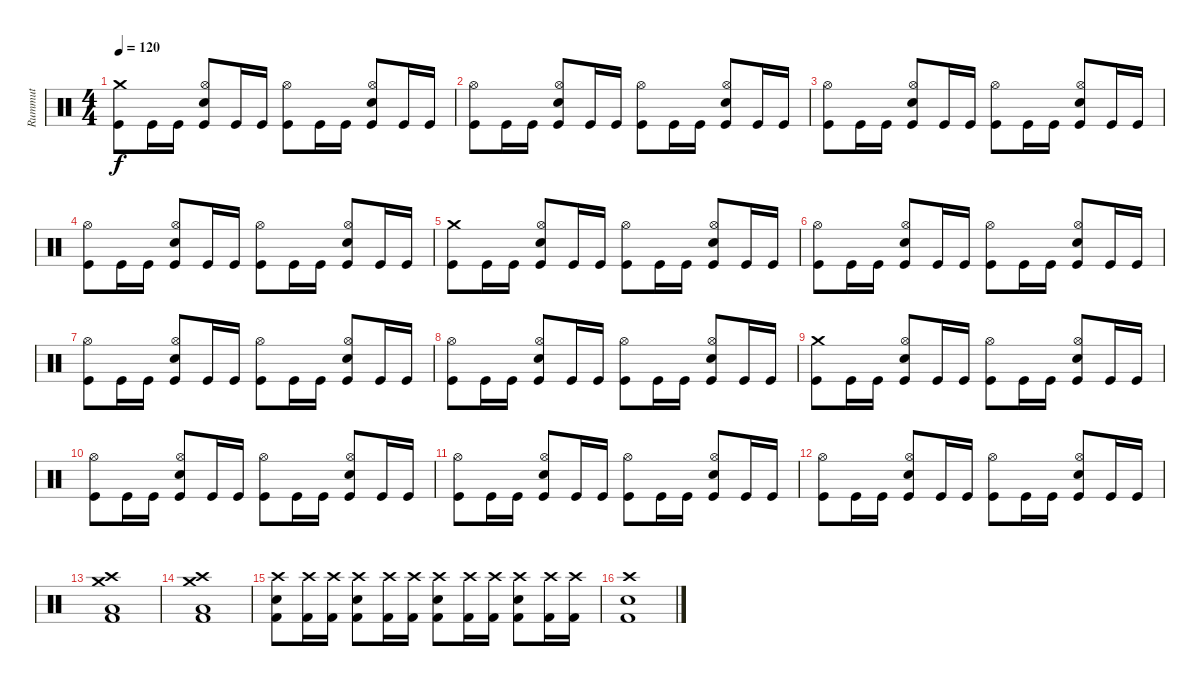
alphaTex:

\track ("Rummut" "Rummut") {instrument percussion}
\staff {score}
\articulation defaults
\ts (4 4)
\tempo 120
\clef neutral
\ks c
("Crash medium (hit)" "Kick (hit)").8{dy f} "Kick (hit)".16 "Kick (hit)".16 ("Hi-Hat (open)" "Snare (hit) 2" "Kick (hit)").8 "Kick (hit)".16 "Kick (hit)".16 ("Hi-Hat (open)" "Kick (hit)").8 "Kick (hit)".16 "Kick (hit)".16 ("Hi-Hat (open)" "Snare (hit) 2" "Kick (hit)").8 "Kick (hit)".16 "Kick (hit)".16 |
("Hi-Hat (open)" "Kick (hit)").8 "Kick (hit)".16 "Kick (hit)".16 ("Hi-Hat (open)" "Snare (hit) 2" "Kick (hit)").8 "Kick (hit)".16 "Kick (hit)".16 ("Hi-Hat (open)" "Kick (hit)").8 "Kick (hit)".16 "Kick (hit)".16 ("Hi-Hat (open)" "Snare (hit) 2" "Kick (hit)").8 "Kick (hit)".16 "Kick (hit)".16 |
("Hi-Hat (open)" "Kick (hit)").8 "Kick (hit)".16 "Kick (hit)".16 ("Hi-Hat (open)" "Snare (hit) 2" "Kick (hit)").8 "Kick (hit)".16 "Kick (hit)".16 ("Hi-Hat (open)" "Kick (hit)").8 "Kick (hit)".16 "Kick (hit)".16 ("Hi-Hat (open)" "Snare (hit) 2" "Kick (hit)").8 "Kick (hit)".16 "Kick (hit)".16 |
("Hi-Hat (open)" "Kick (hit)").8 "Kick (hit)".16 "Kick (hit)".16 ("Hi-Hat (open)" "Snare (hit) 2" "Kick (hit)").8 "Kick (hit)".16 "Kick (hit)".16 ("Hi-Hat (open)" "Kick (hit)").8 "Kick (hit)".16 "Kick (hit)".16 ("Hi-Hat (open)" "Snare (hit) 2" "Kick (hit)").8 "Kick (hit)".16 "Kick (hit)".16 |
("Crash medium (hit)" "Kick (hit)").8 "Kick (hit)".16 "Kick (hit)".16 ("Hi-Hat (open)" "Snare (hit) 2" "Kick (hit)").8 "Kick (hit)".16 "Kick (hit)".16 ("Hi-Hat (open)" "Kick (hit)").8 "Kick (hit)".16 "Kick (hit)".16 ("Hi-Hat (open)" "Snare (hit) 2" "Kick (hit)").8 "Kick (hit)".16 "Kick (hit)".16 |
("Hi-Hat (open)" "Kick (hit)").8 "Kick (hit)".16 "Kick (hit)".16 ("Hi-Hat (open)" "Snare (hit) 2" "Kick (hit)").8 "Kick (hit)".16 "Kick (hit)".16 ("Hi-Hat (open)" "Kick (hit)").8 "Kick (hit)".16 "Kick (hit)".16 ("Hi-Hat (open)" "Snare (hit) 2" "Kick (hit)").8 "Kick (hit)".16 "Kick (hit)".16 |
("Hi-Hat (open)" "Kick (hit)").8 "Kick (hit)".16 "Kick (hit)".16 ("Hi-Hat (open)" "Snare (hit) 2" "Kick (hit)").8 "Kick (hit)".16 "Kick (hit)".16 ("Hi-Hat (open)" "Kick (hit)").8 "Kick (hit)".16 "Kick (hit)".16 ("Hi-Hat (open)" "Snare (hit) 2" "Kick (hit)").8 "Kick (hit)".16 "Kick (hit)".16 |
("Hi-Hat (open)" "Kick (hit)").8 "Kick (hit)".16 "Kick (hit)".16 ("Hi-Hat (open)" "Snare (hit) 2" "Kick (hit)").8 "Kick (hit)".16 "Kick (hit)".16 ("Hi-Hat (open)" "Kick (hit)").8 "Kick (hit)".16 "Kick (hit)".16 ("Hi-Hat (open)" "Snare (hit) 2" "Kick (hit)").8 "Kick (hit)".16 "Kick (hit)".16 |
("Crash medium (hit)" "Kick (hit)").8 "Kick (hit)".16 "Kick (hit)".16 ("Hi-Hat (open)" "Snare (hit) 2" "Kick (hit)").8 "Kick (hit)".16 "Kick (hit)".16 ("Hi-Hat (open)" "Kick (hit)").8 "Kick (hit)".16 "Kick (hit)".16 ("Hi-Hat (open)" "Snare (hit) 2" "Kick (hit)").8 "Kick (hit)".16 "Kick (hit)".16 |
("Hi-Hat (open)" "Kick (hit)").8 "Kick (hit)".16 "Kick (hit)".16 ("Hi-Hat (open)" "Snare (hit) 2" "Kick (hit)").8 "Kick (hit)".16 "Kick (hit)".16 ("Hi-Hat (open)" "Kick (hit)").8 "Kick (hit)".16 "Kick (hit)".16 ("Hi-Hat (open)" "Snare (hit) 2" "Kick (hit)").8 "Kick (hit)".16 "Kick (hit)".16 |
("Hi-Hat (open)" "Kick (hit)").8 "Kick (hit)".16 "Kick (hit)".16 ("Hi-Hat (open)" "Snare (hit) 2" "Kick (hit)").8 "Kick (hit)".16 "Kick (hit)".16 ("Hi-Hat (open)" "Kick (hit)").8 "Kick (hit)".16 "Kick (hit)".16 ("Hi-Hat (open)" "Snare (hit) 2" "Kick (hit)").8 "Kick (hit)".16 "Kick (hit)".16 |
("Hi-Hat (open)" "Kick (hit)").8 "Kick (hit)".16 "Kick (hit)".16 ("Hi-Hat (open)" "Snare (hit) 2" "Kick (hit)").8 "Kick (hit)".16 "Kick (hit)".16 ("Hi-Hat (open)" "Kick (hit)").8 "Kick (hit)".16 "Kick (hit)".16 ("Hi-Hat (open)" "Snare (hit) 2" "Kick (hit)").8 "Kick (hit)".16 "Kick (hit)".16 |
("Low Tom (hit)" "Kick (hit) 2" "Crash medium (hit)" "Crash high (hit)").1 |
("Low Tom (hit)" "Kick (hit) 2" "Crash medium (hit)" "Crash high (hit)").1 |
("Electric Snare (hit)" "Crash high (hit)" "Kick (hit) 2").8 ("Crash high (hit)" "Kick (hit) 2").16 ("Crash high (hit)" "Kick (hit) 2").16 ("Electric Snare (hit)" "Crash high (hit)" "Kick (hit) 2").8 ("Crash high (hit)" "Kick (hit) 2").16 ("Crash high (hit)" "Kick (hit) 2").16 ("Electric Snare (hit)" "Crash high (hit)" "Kick (hit) 2").8 ("Crash high (hit)" "Kick (hit) 2").16 ("Crash high (hit)" "Kick (hit) 2").16 ("Electric Snare (hit)" "Crash high (hit)" "Kick (hit) 2").8 ("Crash high (hit)" "Kick (hit) 2").16 ("Crash high (hit)" "Kick (hit) 2").16 |
("Crash high (hit)" "Kick (hit) 2" "Electric Snare (hit)").1
